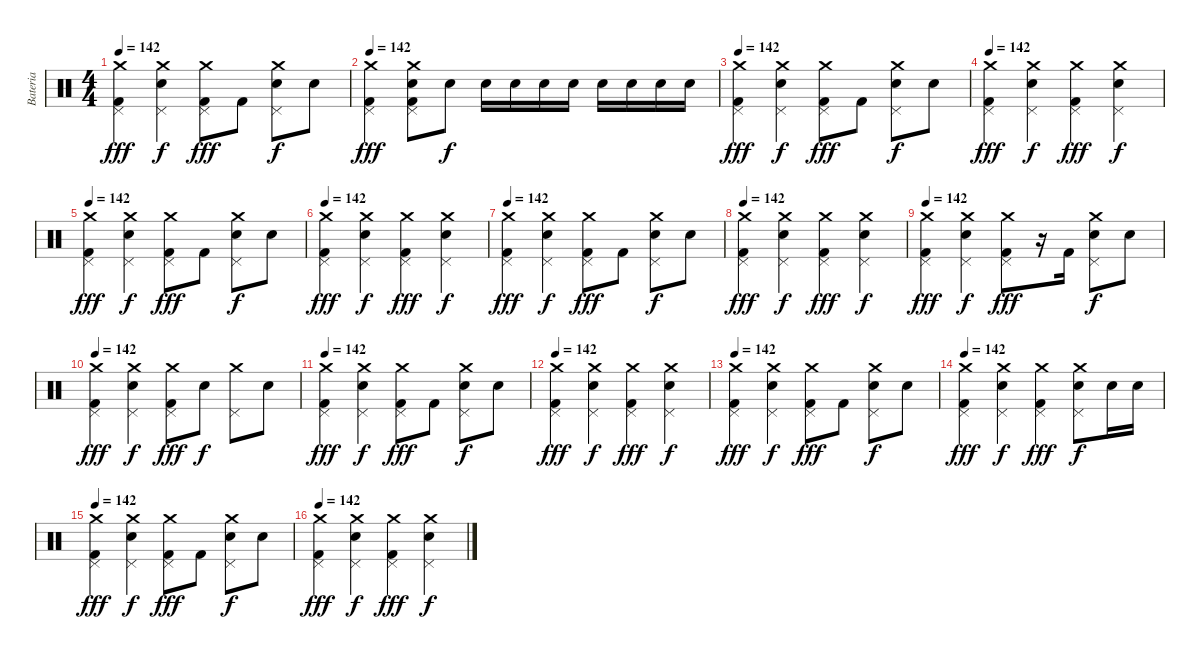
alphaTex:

\track ("Bateria" "Bateria") {instrument percussion}
\staff {score}
\articulation defaults
\ts (4 4)
\tempo 142
\clef neutral
\ks c
("Crash medium (hit)" "Pedal Hi-Hat (hit)" "Kick (hit) 2").4{dy fff} ("Crash medium (hit)" "Pedal Hi-Hat (hit)" "Electric Snare (hit)").4{dy f} ("Crash medium (hit)" "Pedal Hi-Hat (hit)" "Kick (hit) 2").8{dy fff} "Kick (hit) 2".8 ("Crash medium (hit)" "Pedal Hi-Hat (hit)" "Electric Snare (hit)").8{dy f} "Electric Snare (hit)".8 |
\tempo 142
("Crash medium (hit)" "Pedal Hi-Hat (hit)" "Kick (hit) 2").4{dy fff} ("Crash medium (hit)" "Pedal Hi-Hat (hit)" "Electric Snare (hit)" "Kick (hit) 2").8 "Electric Snare (hit)".8{dy f} "Electric Snare (hit)".16 "Electric Snare (hit)".16 "Electric Snare (hit)".16 "Electric Snare (hit)".16 "Electric Snare (hit)".16 "Electric Snare (hit)".16 "Electric Snare (hit)".16 "Electric Snare (hit)".16 |
\tempo 142
("Crash medium (hit)" "Pedal Hi-Hat (hit)" "Kick (hit) 2").4{dy fff} ("Crash medium (hit)" "Pedal Hi-Hat (hit)" "Electric Snare (hit)").4{dy f} ("Crash medium (hit)" "Pedal Hi-Hat (hit)" "Kick (hit) 2").8{dy fff} "Kick (hit) 2".8 ("Crash medium (hit)" "Pedal Hi-Hat (hit)" "Electric Snare (hit)").8{dy f} "Electric Snare (hit)".8 |
\tempo 142
("Crash medium (hit)" "Pedal Hi-Hat (hit)" "Kick (hit) 2").4{dy fff} ("Crash medium (hit)" "Pedal Hi-Hat (hit)" "Electric Snare (hit)").4{dy f} ("Crash medium (hit)" "Pedal Hi-Hat (hit)" "Kick (hit) 2").4{dy fff} ("Crash medium (hit)" "Pedal Hi-Hat (hit)" "Electric Snare (hit)").4{dy f} |
\tempo 142
("Crash medium (hit)" "Pedal Hi-Hat (hit)" "Kick (hit) 2").4{dy fff} ("Crash medium (hit)" "Pedal Hi-Hat (hit)" "Electric Snare (hit)").4{dy f} ("Crash medium (hit)" "Pedal Hi-Hat (hit)" "Kick (hit) 2").8{dy fff} "Kick (hit) 2".8 ("Crash medium (hit)" "Pedal Hi-Hat (hit)" "Electric Snare (hit)").8{dy f} "Electric Snare (hit)".8 |
\tempo 142
("Crash medium (hit)" "Pedal Hi-Hat (hit)" "Kick (hit) 2").4{dy fff} ("Crash medium (hit)" "Pedal Hi-Hat (hit)" "Electric Snare (hit)").4{dy f} ("Crash medium (hit)" "Pedal Hi-Hat (hit)" "Kick (hit) 2").4{dy fff} ("Crash medium (hit)" "Pedal Hi-Hat (hit)" "Electric Snare (hit)").4{dy f} |
\tempo 142
("Crash medium (hit)" "Pedal Hi-Hat (hit)" "Kick (hit) 2").4{dy fff} ("Crash medium (hit)" "Pedal Hi-Hat (hit)" "Electric Snare (hit)").4{dy f} ("Crash medium (hit)" "Pedal Hi-Hat (hit)" "Kick (hit) 2").8{dy fff} "Kick (hit) 2".8 ("Crash medium (hit)" "Pedal Hi-Hat (hit)" "Electric Snare (hit)").8{dy f} "Electric Snare (hit)".8 |
\tempo 142
("Crash medium (hit)" "Pedal Hi-Hat (hit)" "Kick (hit) 2").4{dy fff} ("Crash medium (hit)" "Pedal Hi-Hat (hit)" "Electric Snare (hit)").4{dy f} ("Crash medium (hit)" "Pedal Hi-Hat (hit)" "Kick (hit) 2").4{dy fff} ("Crash medium (hit)" "Pedal Hi-Hat (hit)" "Electric Snare (hit)").4{dy f} |
\tempo 142
("Crash medium (hit)" "Pedal Hi-Hat (hit)" "Kick (hit) 2").4{dy fff} ("Crash medium (hit)" "Pedal Hi-Hat (hit)" "Electric Snare (hit)").4{dy f} ("Crash medium (hit)" "Pedal Hi-Hat (hit)" "Kick (hit) 2").8{dy fff} r.16 "Kick (hit) 2".16 ("Crash medium (hit)" "Pedal Hi-Hat (hit)" "Electric Snare (hit)").8{dy f} "Electric Snare (hit)".8 |
\tempo 142
("Crash medium (hit)" "Pedal Hi-Hat (hit)" "Kick (hit) 2").4{dy fff} ("Crash medium (hit)" "Pedal Hi-Hat (hit)" "Electric Snare (hit)").4{dy f} ("Crash medium (hit)" "Pedal Hi-Hat (hit)" "Kick (hit) 2").8{dy fff} "Electric Snare (hit)".8{dy f} ("Crash medium (hit)" "Pedal Hi-Hat (hit)").8 "Electric Snare (hit)".8 |
\tempo 142
("Crash medium (hit)" "Pedal Hi-Hat (hit)" "Kick (hit) 2").4{dy fff} ("Crash medium (hit)" "Pedal Hi-Hat (hit)" "Electric Snare (hit)").4{dy f} ("Crash medium (hit)" "Pedal Hi-Hat (hit)" "Kick (hit) 2").8{dy fff} "Kick (hit) 2".8 ("Crash medium (hit)" "Pedal Hi-Hat (hit)" "Electric Snare (hit)").8{dy f} "Electric Snare (hit)".8 |
\tempo 142
("Crash medium (hit)" "Pedal Hi-Hat (hit)" "Kick (hit) 2").4{dy fff} ("Crash medium (hit)" "Pedal Hi-Hat (hit)" "Electric Snare (hit)").4{dy f} ("Crash medium (hit)" "Pedal Hi-Hat (hit)" "Kick (hit) 2").4{dy fff} ("Crash medium (hit)" "Pedal Hi-Hat (hit)" "Electric Snare (hit)").4{dy f} |
\tempo 142
("Crash medium (hit)" "Pedal Hi-Hat (hit)" "Kick (hit) 2").4{dy fff} ("Crash medium (hit)" "Pedal Hi-Hat (hit)" "Electric Snare (hit)").4{dy f} ("Crash medium (hit)" "Pedal Hi-Hat (hit)" "Kick (hit) 2").8{dy fff} "Kick (hit) 2".8 ("Crash medium (hit)" "Pedal Hi-Hat (hit)" "Electric Snare (hit)").8{dy f} "Electric Snare (hit)".8 |
\tempo 142
("Crash medium (hit)" "Pedal Hi-Hat (hit)" "Kick (hit) 2").4{dy fff} ("Crash medium (hit)" "Pedal Hi-Hat (hit)" "Electric Snare (hit)").4{dy f} ("Crash medium (hit)" "Pedal Hi-Hat (hit)" "Kick (hit) 2").4{dy fff} ("Crash medium (hit)" "Pedal Hi-Hat (hit)" "Electric Snare (hit)").8{dy f} "Electric Snare (hit)".16 "Electric Snare (hit)".16 |
\tempo 142
("Crash medium (hit)" "Pedal Hi-Hat (hit)" "Kick (hit) 2").4{dy fff} ("Crash medium (hit)" "Pedal Hi-Hat (hit)" "Electric Snare (hit)").4{dy f} ("Crash medium (hit)" "Pedal Hi-Hat (hit)" "Kick (hit) 2").8{dy fff} "Kick (hit) 2".8 ("Crash medium (hit)" "Pedal Hi-Hat (hit)" "Electric Snare (hit)").8{dy f} "Electric Snare (hit)".8 |
\tempo 142
("Crash medium (hit)" "Pedal Hi-Hat (hit)" "Kick (hit) 2").4{dy fff} ("Crash medium (hit)" "Pedal Hi-Hat (hit)" "Electric Snare (hit)").4{dy f} ("Crash medium (hit)" "Pedal Hi-Hat (hit)" "Kick (hit) 2").4{dy fff} ("Crash medium (hit)" "Pedal Hi-Hat (hit)" "Electric Snare (hit)").4{dy f}
